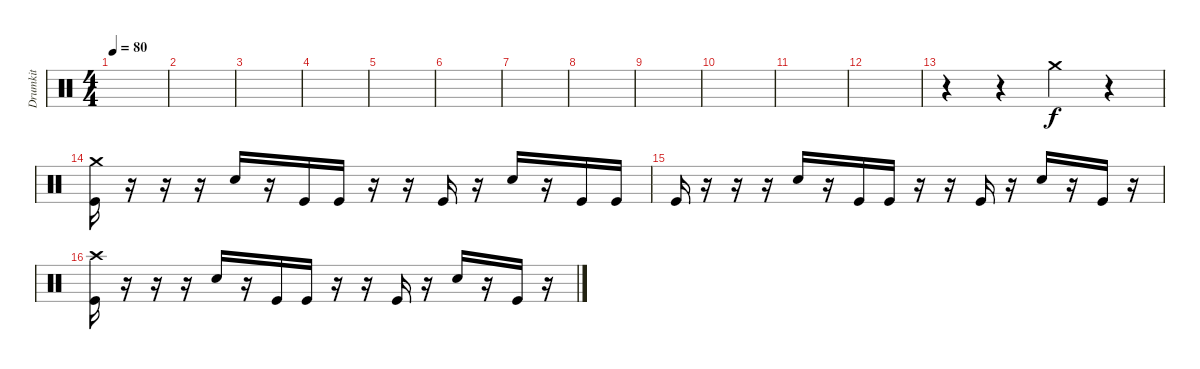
\track ("Drumkit" "Drumkit") {instrument percussion}
\staff {score}
\articulation defaults
\ts (4 4)
\tempo 80
\clef neutral
\ks c
|
|
|
|
|
|
|
|
|
|
|
|
r.4 r.4 "Crash medium (hit)".4 r.4 |
("Kick (hit)" "Crash medium (hit)").16 r.16 r.16 r.16 "Snare (hit) 2".16 r.16 "Kick (hit)".16 "Kick (hit)".16 r.16 r.16 "Kick (hit)".16 r.16 "Snare (hit) 2".16 r.16 "Kick (hit)".16 "Kick (hit)".16 |
"Kick (hit)".16 r.16 r.16 r.16 "Snare (hit) 2".16 r.16 "Kick (hit)".16 "Kick (hit)".16 r.16 r.16 "Kick (hit)".16 r.16 "Snare (hit) 2".16 r.16 "Kick (hit)".16 r.16 |
("Kick (hit)" "Crash high (hit)").16 r.16 r.16 r.16 "Snare (hit) 2".16 r.16 "Kick (hit)".16 "Kick (hit)".16 r.16 r.16 "Kick (hit)".16 r.16 "Snare (hit) 2".16 r.16 "Kick (hit)".16 r.16
